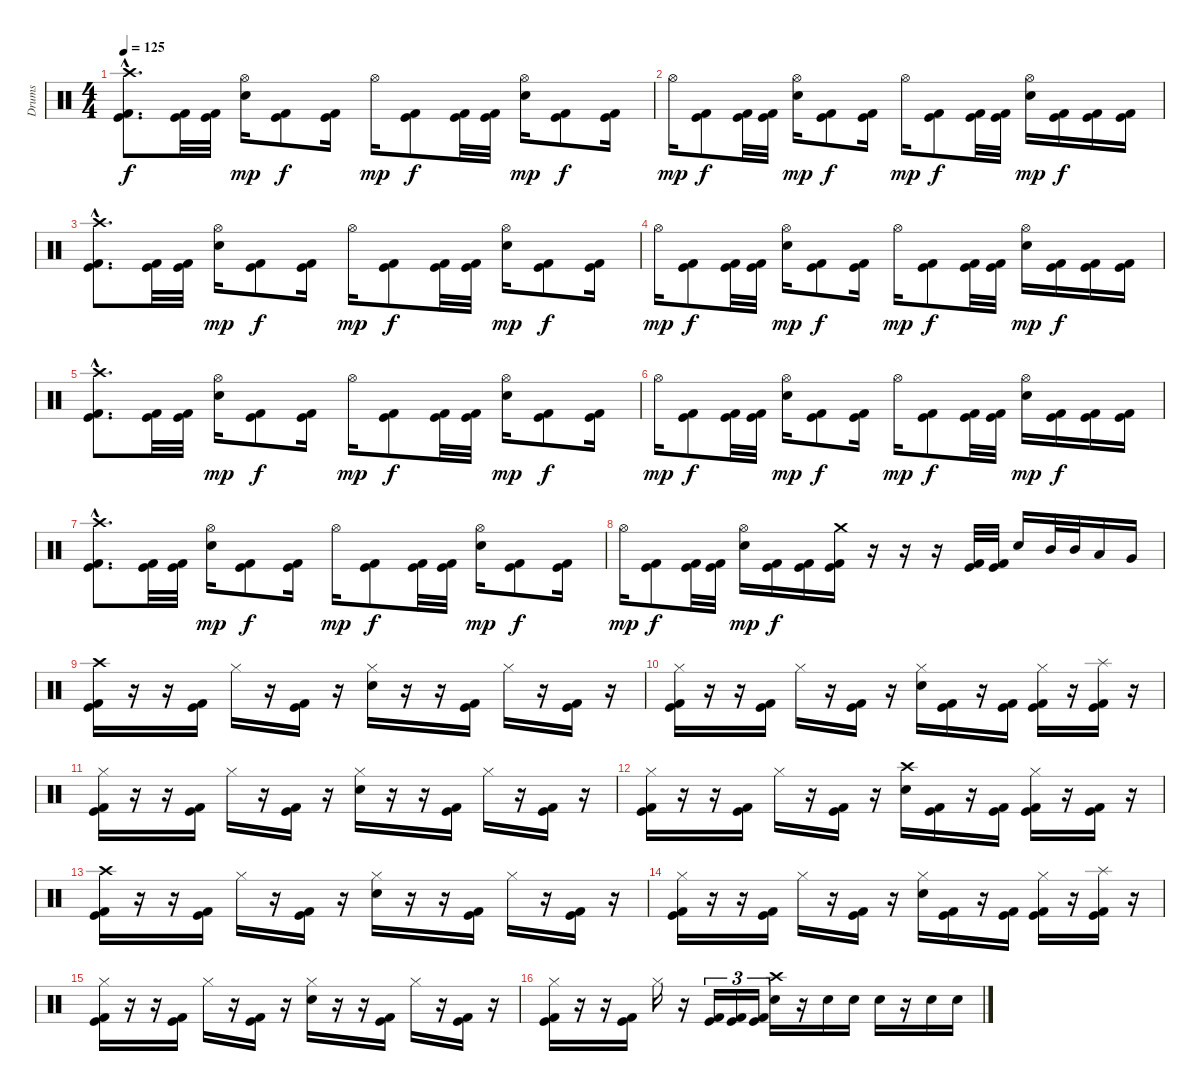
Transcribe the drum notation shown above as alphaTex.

\track ("Drums" "Drums") {instrument percussion}
\staff {score}
\articulation defaults
\ts (4 4)
\tempo 125
\clef neutral
\ks c
("Crash high (hit)"{hac} "Kick (hit)"{hac} "Kick (hit) 2"{hac}).8{d dy f volume 16} ("Kick (hit)" "Kick (hit) 2").32 ("Kick (hit)" "Kick (hit) 2").32 ("Hi-Hat (open)" "Electric Snare (hit)").16{dy mp} ("Kick (hit)" "Kick (hit) 2").8{dy f} ("Kick (hit)" "Kick (hit) 2").16 "Hi-Hat (open)".16{dy mp} ("Kick (hit)" "Kick (hit) 2").8{dy f} ("Kick (hit)" "Kick (hit) 2").32 ("Kick (hit)" "Kick (hit) 2").32 ("Hi-Hat (open)" "Electric Snare (hit)").16{dy mp} ("Kick (hit)" "Kick (hit) 2").8{dy f} ("Kick (hit)" "Kick (hit) 2").16 |
"Hi-Hat (open)".16{dy mp} ("Kick (hit)" "Kick (hit) 2").8{dy f} ("Kick (hit)" "Kick (hit) 2").32 ("Kick (hit)" "Kick (hit) 2").32 ("Hi-Hat (open)" "Electric Snare (hit)").16{dy mp} ("Kick (hit)" "Kick (hit) 2").8{dy f} ("Kick (hit)" "Kick (hit) 2").16 "Hi-Hat (open)".16{dy mp} ("Kick (hit)" "Kick (hit) 2").8{dy f} ("Kick (hit)" "Kick (hit) 2").32 ("Kick (hit)" "Kick (hit) 2").32 ("Hi-Hat (open)" "Electric Snare (hit)").16{dy mp} ("Kick (hit)" "Kick (hit) 2").16{dy f} ("Kick (hit)" "Kick (hit) 2").16 ("Kick (hit)" "Kick (hit) 2").16 |
("Crash high (hit)"{hac} "Kick (hit)"{hac} "Kick (hit) 2"{hac}).8{d} ("Kick (hit)" "Kick (hit) 2").32 ("Kick (hit)" "Kick (hit) 2").32 ("Hi-Hat (open)" "Electric Snare (hit)").16{dy mp} ("Kick (hit)" "Kick (hit) 2").8{dy f} ("Kick (hit)" "Kick (hit) 2").16 "Hi-Hat (open)".16{dy mp} ("Kick (hit)" "Kick (hit) 2").8{dy f} ("Kick (hit)" "Kick (hit) 2").32 ("Kick (hit)" "Kick (hit) 2").32 ("Hi-Hat (open)" "Electric Snare (hit)").16{dy mp} ("Kick (hit)" "Kick (hit) 2").8{dy f} ("Kick (hit)" "Kick (hit) 2").16 |
"Hi-Hat (open)".16{dy mp} ("Kick (hit)" "Kick (hit) 2").8{dy f} ("Kick (hit)" "Kick (hit) 2").32 ("Kick (hit)" "Kick (hit) 2").32 ("Hi-Hat (open)" "Electric Snare (hit)").16{dy mp} ("Kick (hit)" "Kick (hit) 2").8{dy f} ("Kick (hit)" "Kick (hit) 2").16 "Hi-Hat (open)".16{dy mp} ("Kick (hit)" "Kick (hit) 2").8{dy f} ("Kick (hit)" "Kick (hit) 2").32 ("Kick (hit)" "Kick (hit) 2").32 ("Hi-Hat (open)" "Electric Snare (hit)").16{dy mp} ("Kick (hit)" "Kick (hit) 2").16{dy f} ("Kick (hit)" "Kick (hit) 2").16 ("Kick (hit)" "Kick (hit) 2").16 |
("Crash high (hit)"{hac} "Kick (hit)"{hac} "Kick (hit) 2"{hac}).8{d} ("Kick (hit)" "Kick (hit) 2").32 ("Kick (hit)" "Kick (hit) 2").32 ("Hi-Hat (open)" "Electric Snare (hit)").16{dy mp} ("Kick (hit)" "Kick (hit) 2").8{dy f} ("Kick (hit)" "Kick (hit) 2").16 "Hi-Hat (open)".16{dy mp} ("Kick (hit)" "Kick (hit) 2").8{dy f} ("Kick (hit)" "Kick (hit) 2").32 ("Kick (hit)" "Kick (hit) 2").32 ("Hi-Hat (open)" "Electric Snare (hit)").16{dy mp} ("Kick (hit)" "Kick (hit) 2").8{dy f} ("Kick (hit)" "Kick (hit) 2").16 |
"Hi-Hat (open)".16{dy mp} ("Kick (hit)" "Kick (hit) 2").8{dy f} ("Kick (hit)" "Kick (hit) 2").32 ("Kick (hit)" "Kick (hit) 2").32 ("Hi-Hat (open)" "Electric Snare (hit)").16{dy mp} ("Kick (hit)" "Kick (hit) 2").8{dy f} ("Kick (hit)" "Kick (hit) 2").16 "Hi-Hat (open)".16{dy mp} ("Kick (hit)" "Kick (hit) 2").8{dy f} ("Kick (hit)" "Kick (hit) 2").32 ("Kick (hit)" "Kick (hit) 2").32 ("Hi-Hat (open)" "Electric Snare (hit)").16{dy mp} ("Kick (hit)" "Kick (hit) 2").16{dy f} ("Kick (hit)" "Kick (hit) 2").16 ("Kick (hit)" "Kick (hit) 2").16 |
("Crash high (hit)"{hac} "Kick (hit)"{hac} "Kick (hit) 2"{hac}).8{d} ("Kick (hit)" "Kick (hit) 2").32 ("Kick (hit)" "Kick (hit) 2").32 ("Hi-Hat (open)" "Electric Snare (hit)").16{dy mp} ("Kick (hit)" "Kick (hit) 2").8{dy f} ("Kick (hit)" "Kick (hit) 2").16 "Hi-Hat (open)".16{dy mp} ("Kick (hit)" "Kick (hit) 2").8{dy f} ("Kick (hit)" "Kick (hit) 2").32 ("Kick (hit)" "Kick (hit) 2").32 ("Hi-Hat (open)" "Electric Snare (hit)").16{dy mp} ("Kick (hit)" "Kick (hit) 2").8{dy f} ("Kick (hit)" "Kick (hit) 2").16 |
"Hi-Hat (open)".16{dy mp} ("Kick (hit)" "Kick (hit) 2").8{dy f} ("Kick (hit)" "Kick (hit) 2").32 ("Kick (hit)" "Kick (hit) 2").32 ("Hi-Hat (open)" "Electric Snare (hit)").16{dy mp} ("Kick (hit)" "Kick (hit) 2").16{dy f} ("Kick (hit)" "Kick (hit) 2").16 ("Crash medium (hit)" "Kick (hit)" "Kick (hit) 2").16 r.16 r.16 r.16 ("Kick (hit)" "Kick (hit) 2").32 ("Kick (hit)" "Kick (hit) 2").32 "Electric Snare (hit)".16 "Mid Tom (hit)".32 "Mid Tom (hit)".32 "Low Tom (hit)".16 "Very Low Tom (hit)".16 |
("Crash high (hit)" "Kick (hit)" "Kick (hit) 2").16 r.16 r.16 ("Kick (hit)" "Kick (hit) 2").16 "Hi-Hat (closed)".16 r.16 ("Kick (hit)" "Kick (hit) 2").16 r.16 ("Hi-Hat (closed)" "Electric Snare (hit)").16 r.16 r.16 ("Kick (hit)" "Kick (hit) 2").16 "Hi-Hat (closed)".16 r.16 ("Kick (hit)" "Kick (hit) 2").16 r.16 |
("Hi-Hat (closed)" "Kick (hit)" "Kick (hit) 2").16 r.16 r.16 ("Kick (hit)" "Kick (hit) 2").16 "Hi-Hat (closed)".16 r.16 ("Kick (hit)" "Kick (hit) 2").16 r.16 ("Hi-Hat (closed)" "Electric Snare (hit)").16 ("Kick (hit)" "Kick (hit) 2").16 r.16 ("Kick (hit)" "Kick (hit) 2").16 ("Hi-Hat (closed)" "Kick (hit)" "Kick (hit) 2").16 r.16 ("Splash (hit)" "Kick (hit)" "Kick (hit) 2").16 r.16 |
("Hi-Hat (closed)" "Kick (hit)" "Kick (hit) 2").16 r.16 r.16 ("Kick (hit)" "Kick (hit) 2").16 "Hi-Hat (closed)".16 r.16 ("Kick (hit)" "Kick (hit) 2").16 r.16 ("Hi-Hat (closed)" "Electric Snare (hit)").16 r.16 r.16 ("Kick (hit)" "Kick (hit) 2").16 "Hi-Hat (closed)".16 r.16 ("Kick (hit)" "Kick (hit) 2").16 r.16 |
("Hi-Hat (closed)" "Kick (hit)" "Kick (hit) 2").16 r.16 r.16 ("Kick (hit)" "Kick (hit) 2").16 "Hi-Hat (closed)".16 r.16 ("Kick (hit)" "Kick (hit) 2").16 r.16 ("Crash high (hit)" "Electric Snare (hit)").16 ("Kick (hit)" "Kick (hit) 2").16 r.16 ("Kick (hit)" "Kick (hit) 2").16 ("Hi-Hat (closed)" "Kick (hit)" "Kick (hit) 2").16 r.16 ("Kick (hit)" "Kick (hit) 2").16 r.16 |
("Crash high (hit)" "Kick (hit)" "Kick (hit) 2").16 r.16 r.16 ("Kick (hit)" "Kick (hit) 2").16 "Hi-Hat (closed)".16 r.16 ("Kick (hit)" "Kick (hit) 2").16 r.16 ("Hi-Hat (closed)" "Electric Snare (hit)").16 r.16 r.16 ("Kick (hit)" "Kick (hit) 2").16 "Hi-Hat (closed)".16 r.16 ("Kick (hit)" "Kick (hit) 2").16 r.16 |
("Hi-Hat (closed)" "Kick (hit)" "Kick (hit) 2").16 r.16 r.16 ("Kick (hit)" "Kick (hit) 2").16 "Hi-Hat (closed)".16 r.16 ("Kick (hit)" "Kick (hit) 2").16 r.16 ("Hi-Hat (closed)" "Electric Snare (hit)").16 ("Kick (hit)" "Kick (hit) 2").16 r.16 ("Kick (hit)" "Kick (hit) 2").16 ("Hi-Hat (closed)" "Kick (hit)" "Kick (hit) 2").16 r.16 ("Splash (hit)" "Kick (hit)" "Kick (hit) 2").16 r.16 |
("Hi-Hat (closed)" "Kick (hit)" "Kick (hit) 2").16 r.16 r.16 ("Kick (hit)" "Kick (hit) 2").16 "Hi-Hat (closed)".16 r.16 ("Kick (hit)" "Kick (hit) 2").16 r.16 ("Hi-Hat (closed)" "Electric Snare (hit)").16 r.16 r.16 ("Kick (hit)" "Kick (hit) 2").16 "Hi-Hat (closed)".16 r.16 ("Kick (hit)" "Kick (hit) 2").16 r.16 |
("Hi-Hat (closed)" "Kick (hit)" "Kick (hit) 2").16 r.16 r.16 ("Kick (hit)" "Kick (hit) 2").16 "Hi-Hat (closed)".16 r.16 ("Kick (hit)" "Kick (hit) 2").16{tu (3 2)} ("Kick (hit)" "Kick (hit) 2").16{tu (3 2)} ("Kick (hit)" "Kick (hit) 2").16{tu (3 2)} ("Crash high (hit)" "Electric Snare (hit)").16 r.16 "Electric Snare (hit)".16 "Electric Snare (hit)".16 "Electric Snare (hit)".16 r.16 "Electric Snare (hit)".16 "Electric Snare (hit)".16
